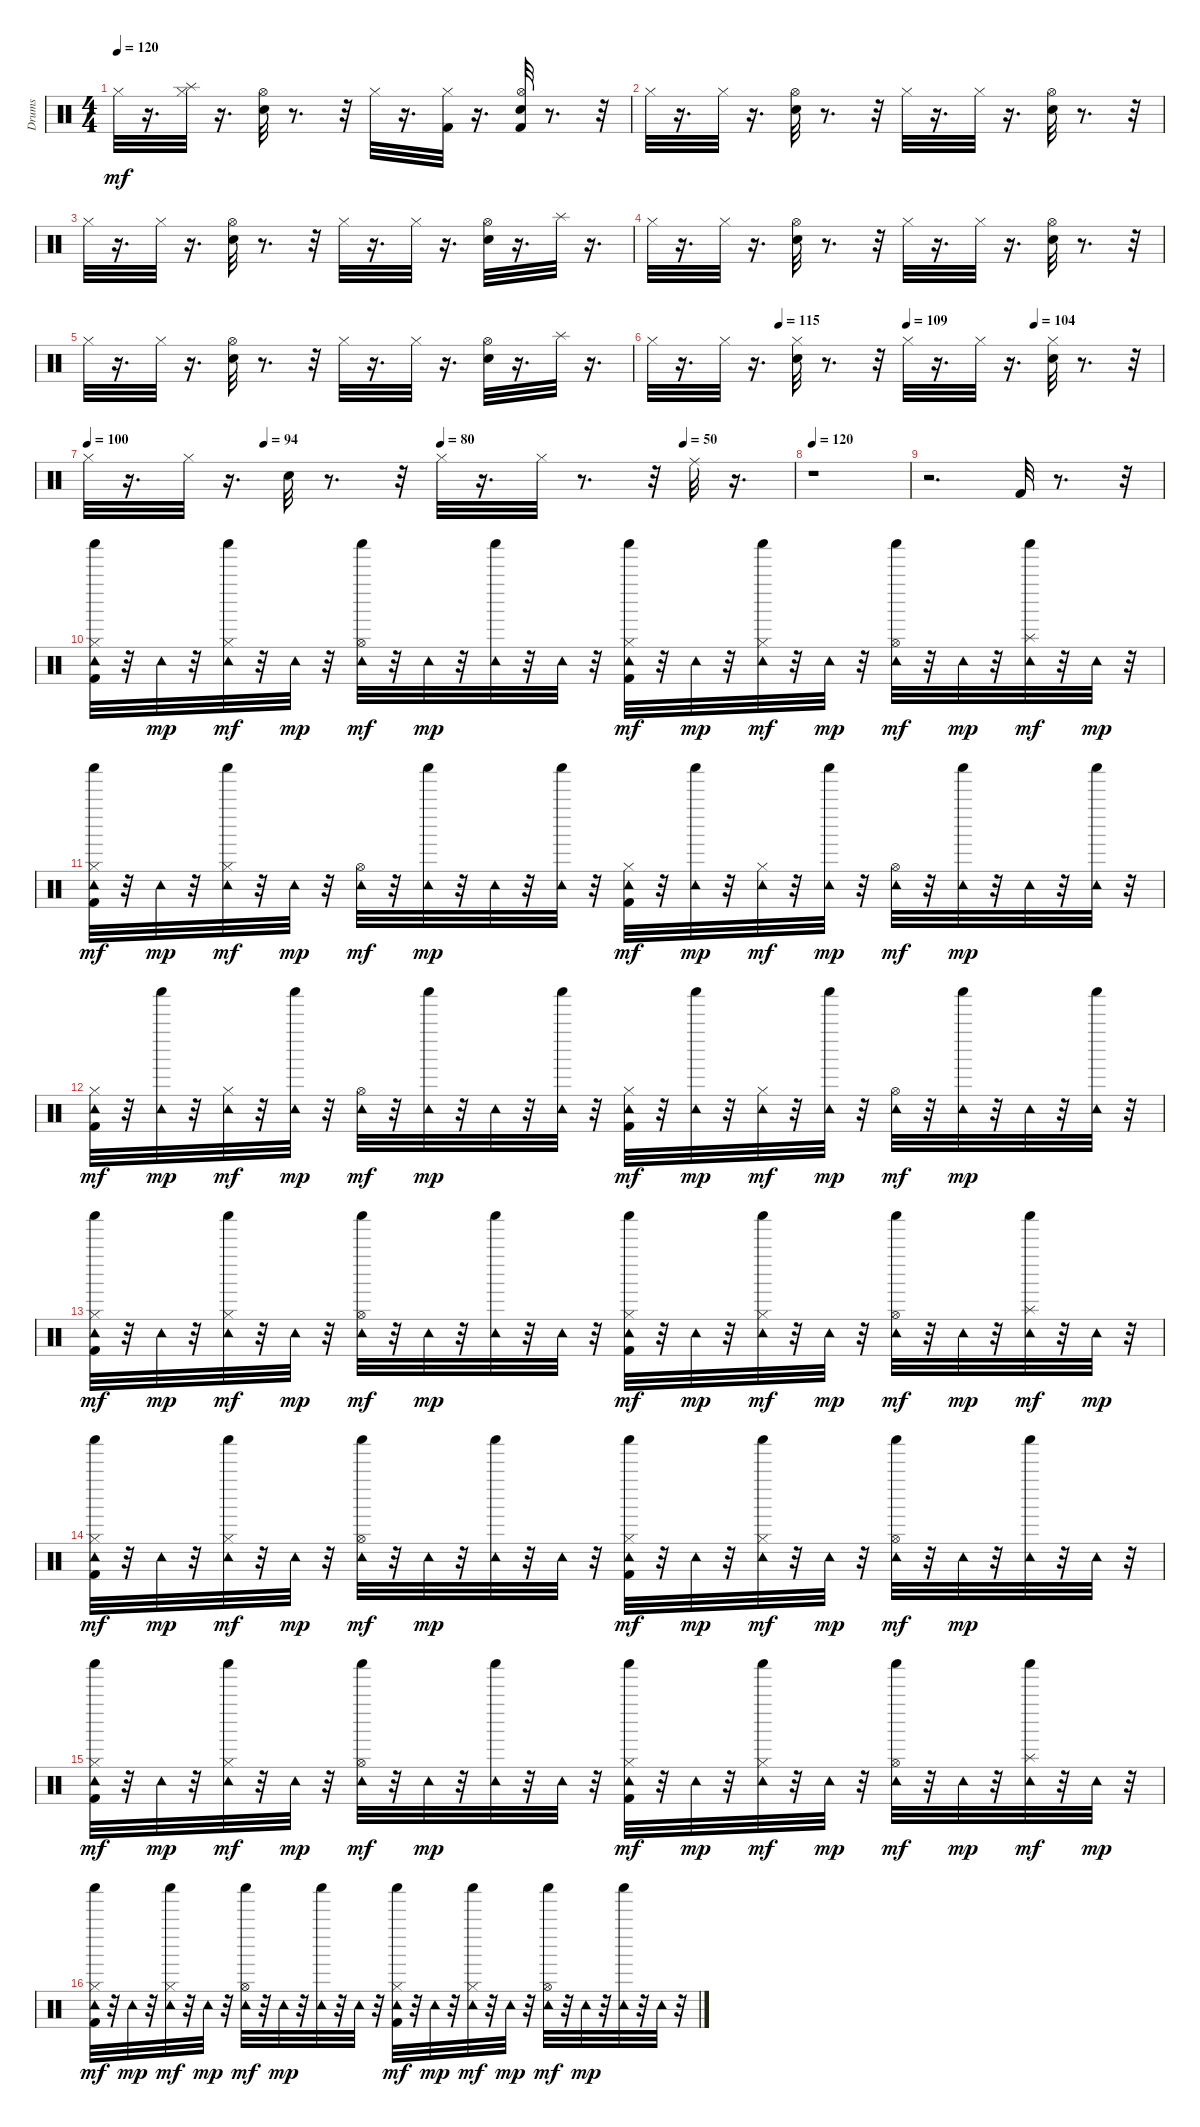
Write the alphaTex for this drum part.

\track ("Drums" "Drums") {instrument percussion}
\staff {score}
\articulation defaults
\ts (4 4)
\tempo 120
\clef neutral
\ks c "Hi-Hat (closed)".32{dy mf}
r.16{d} ("Splash (hit)" "Hi-Hat (closed)").32 r.16{d} ("Snare (hit) 2" "Hi-Hat (open)").32 r.8{d} r.32 "Hi-Hat (closed)".32 r.16{d} ("Kick (hit) 2" "Hi-Hat (closed)").32 r.16{d} ("Kick (hit) 2" "Snare (hit) 2" "Hi-Hat (open)").32 r.8{d} r.32 |
"Hi-Hat (closed)".32 r.16{d} "Hi-Hat (closed)".32 r.16{d} ("Snare (hit) 2" "Hi-Hat (open)").32 r.8{d} r.32 "Hi-Hat (closed)".32 r.16{d} "Hi-Hat (closed)".32 r.16{d} ("Snare (hit) 2" "Hi-Hat (open)").32 r.8{d} r.32 |
"Hi-Hat (closed)".32 r.16{d} "Hi-Hat (closed)".32 r.16{d} ("Snare (hit) 2" "Hi-Hat (open)").32 r.8{d} r.32 "Hi-Hat (closed)".32 r.16{d} "Hi-Hat (closed)".32 r.16{d} ("Snare (hit) 2" "Hi-Hat (open)").32 r.16{d} "Splash (hit)".32 r.16{d} |
"Hi-Hat (closed)".32 r.16{d} "Hi-Hat (closed)".32 r.16{d} ("Snare (hit) 2" "Hi-Hat (open)").32 r.8{d} r.32 "Hi-Hat (closed)".32 r.16{d} "Hi-Hat (closed)".32 r.16{d} ("Snare (hit) 2" "Hi-Hat (open)").32 r.8{d} r.32 |
"Hi-Hat (closed)".32 r.16{d} "Hi-Hat (closed)".32 r.16{d} ("Snare (hit) 2" "Hi-Hat (open)").32 r.8{d} r.32 "Hi-Hat (closed)".32 r.16{d} "Hi-Hat (closed)".32 r.16{d} ("Snare (hit) 2" "Hi-Hat (open)").32 r.16{d} "Splash (hit)".32 r.16{d} |
\tempo (115 0.25)
\tempo (109 0.5)
\tempo (104 0.75)
"Hi-Hat (closed)".32 r.16{d} "Hi-Hat (closed)".32 r.16{d} ("Snare (hit) 2" "Hi-Hat (closed)").32 r.8{d} r.32 "Hi-Hat (closed)".32 r.16{d} "Hi-Hat (closed)".32 r.16{d} ("Snare (hit) 2" "Hi-Hat (closed)").32 r.8{d} r.32 |
\tempo 100
\tempo (94 0.25)
\tempo (80 0.5)
\tempo (50 0.84375)
"Hi-Hat (closed)".32 r.16{d} "Hi-Hat (closed)".32 r.16{d} "Snare (hit) 2".32 r.8{d} r.32 "Hi-Hat (closed)".32 r.16{d} "Hi-Hat (closed)".32 r.8{d} r.32 "Ride (middle)".32 r.16{d} |
\tempo 120
r.1 |
r.2{d} "Kick (hit) 2".32 r.8{d} r.32 |
("Kick (hit) 2" "Tambourine (hit)" "Shaker (hit)" "Hi-Hat (closed)").32 r.32 "Tambourine (hit)".32{dy mp} r.32 ("Tambourine (hit)" "Shaker (hit)" "Hi-Hat (closed)").32{dy mf} r.32 "Tambourine (hit)".32{dy mp} r.32 ("Tambourine (hit)" "Shaker (hit)" "Hi-Hat (open)").32{dy mf} r.32 "Tambourine (hit)".32{dy mp} r.32 ("Tambourine (hit)" "Shaker (hit)").32 r.32 "Tambourine (hit)".32 r.32 ("Kick (hit) 2" "Tambourine (hit)" "Shaker (hit)" "Hi-Hat (closed)").32{dy mf} r.32 "Tambourine (hit)".32{dy mp} r.32 ("Tambourine (hit)" "Shaker (hit)" "Hi-Hat (closed)").32{dy mf} r.32 "Tambourine (hit)".32{dy mp} r.32 ("Tambourine (hit)" "Shaker (hit)" "Hi-Hat (open)").32{dy mf} r.32 "Tambourine (hit)".32{dy mp} r.32 ("Tambourine (hit)" "Shaker (hit)" "Splash (hit)").32{dy mf} r.32 "Tambourine (hit)".32{dy mp} r.32 |
("Kick (hit) 2" "Tambourine (hit)" "Shaker (hit)" "Hi-Hat (closed)").32{dy mf} r.32 "Tambourine (hit)".32{dy mp} r.32 ("Tambourine (hit)" "Shaker (hit)" "Hi-Hat (closed)").32{dy mf} r.32 "Tambourine (hit)".32{dy mp} r.32 ("Tambourine (hit)" "Hi-Hat (open)").32{dy mf} r.32 ("Tambourine (hit)" "Shaker (hit)").32{dy mp} r.32 "Tambourine (hit)".32 r.32 ("Tambourine (hit)" "Shaker (hit)").32 r.32 ("Kick (hit) 2" "Tambourine (hit)" "Hi-Hat (closed)").32{dy mf} r.32 ("Tambourine (hit)" "Shaker (hit)").32{dy mp} r.32 ("Tambourine (hit)" "Hi-Hat (closed)").32{dy mf} r.32 ("Tambourine (hit)" "Shaker (hit)").32{dy mp} r.32 ("Tambourine (hit)" "Hi-Hat (open)").32{dy mf} r.32 ("Tambourine (hit)" "Shaker (hit)").32{dy mp} r.32 "Tambourine (hit)".32 r.32 ("Tambourine (hit)" "Shaker (hit)").32 r.32 |
("Kick (hit) 2" "Tambourine (hit)" "Hi-Hat (closed)").32{dy mf} r.32 ("Tambourine (hit)" "Shaker (hit)").32{dy mp} r.32 ("Tambourine (hit)" "Hi-Hat (closed)").32{dy mf} r.32 ("Tambourine (hit)" "Shaker (hit)").32{dy mp} r.32 ("Tambourine (hit)" "Hi-Hat (open)").32{dy mf} r.32 ("Tambourine (hit)" "Shaker (hit)").32{dy mp} r.32 "Tambourine (hit)".32 r.32 ("Tambourine (hit)" "Shaker (hit)").32 r.32 ("Kick (hit) 2" "Tambourine (hit)" "Hi-Hat (closed)").32{dy mf} r.32 ("Tambourine (hit)" "Shaker (hit)").32{dy mp} r.32 ("Tambourine (hit)" "Hi-Hat (closed)").32{dy mf} r.32 ("Tambourine (hit)" "Shaker (hit)").32{dy mp} r.32 ("Tambourine (hit)" "Hi-Hat (open)").32{dy mf} r.32 ("Tambourine (hit)" "Shaker (hit)").32{dy mp} r.32 "Tambourine (hit)".32 r.32 ("Tambourine (hit)" "Shaker (hit)").32 r.32 |
("Kick (hit) 2" "Tambourine (hit)" "Shaker (hit)" "Hi-Hat (closed)").32{dy mf} r.32 "Tambourine (hit)".32{dy mp} r.32 ("Tambourine (hit)" "Shaker (hit)" "Hi-Hat (closed)").32{dy mf} r.32 "Tambourine (hit)".32{dy mp} r.32 ("Tambourine (hit)" "Shaker (hit)" "Hi-Hat (open)").32{dy mf} r.32 "Tambourine (hit)".32{dy mp} r.32 ("Tambourine (hit)" "Shaker (hit)").32 r.32 "Tambourine (hit)".32 r.32 ("Kick (hit) 2" "Tambourine (hit)" "Shaker (hit)" "Hi-Hat (closed)").32{dy mf} r.32 "Tambourine (hit)".32{dy mp} r.32 ("Tambourine (hit)" "Shaker (hit)" "Hi-Hat (closed)").32{dy mf} r.32 "Tambourine (hit)".32{dy mp} r.32 ("Tambourine (hit)" "Shaker (hit)" "Hi-Hat (open)").32{dy mf} r.32 "Tambourine (hit)".32{dy mp} r.32 ("Tambourine (hit)" "Shaker (hit)" "Splash (hit)").32{dy mf} r.32 "Tambourine (hit)".32{dy mp} r.32 |
("Kick (hit) 2" "Tambourine (hit)" "Shaker (hit)" "Hi-Hat (closed)").32{dy mf} r.32 "Tambourine (hit)".32{dy mp} r.32 ("Tambourine (hit)" "Shaker (hit)" "Hi-Hat (closed)").32{dy mf} r.32 "Tambourine (hit)".32{dy mp} r.32 ("Tambourine (hit)" "Shaker (hit)" "Hi-Hat (open)").32{dy mf} r.32 "Tambourine (hit)".32{dy mp} r.32 ("Tambourine (hit)" "Shaker (hit)").32 r.32 "Tambourine (hit)".32 r.32 ("Kick (hit) 2" "Tambourine (hit)" "Shaker (hit)" "Hi-Hat (closed)").32{dy mf} r.32 "Tambourine (hit)".32{dy mp} r.32 ("Tambourine (hit)" "Shaker (hit)" "Hi-Hat (closed)").32{dy mf} r.32 "Tambourine (hit)".32{dy mp} r.32 ("Tambourine (hit)" "Shaker (hit)" "Hi-Hat (open)").32{dy mf} r.32 "Tambourine (hit)".32{dy mp} r.32 ("Tambourine (hit)" "Shaker (hit)").32 r.32 "Tambourine (hit)".32 r.32 |
("Kick (hit) 2" "Tambourine (hit)" "Shaker (hit)" "Hi-Hat (closed)").32{dy mf} r.32 "Tambourine (hit)".32{dy mp} r.32 ("Tambourine (hit)" "Shaker (hit)" "Hi-Hat (closed)").32{dy mf} r.32 "Tambourine (hit)".32{dy mp} r.32 ("Tambourine (hit)" "Shaker (hit)" "Hi-Hat (open)").32{dy mf} r.32 "Tambourine (hit)".32{dy mp} r.32 ("Tambourine (hit)" "Shaker (hit)").32 r.32 "Tambourine (hit)".32 r.32 ("Kick (hit) 2" "Tambourine (hit)" "Shaker (hit)" "Hi-Hat (closed)").32{dy mf} r.32 "Tambourine (hit)".32{dy mp} r.32 ("Tambourine (hit)" "Shaker (hit)" "Hi-Hat (closed)").32{dy mf} r.32 "Tambourine (hit)".32{dy mp} r.32 ("Tambourine (hit)" "Shaker (hit)" "Hi-Hat (open)").32{dy mf} r.32 "Tambourine (hit)".32{dy mp} r.32 ("Tambourine (hit)" "Shaker (hit)" "Splash (hit)").32{dy mf} r.32 "Tambourine (hit)".32{dy mp} r.32 |
("Kick (hit) 2" "Tambourine (hit)" "Shaker (hit)" "Hi-Hat (closed)").32{dy mf} r.32 "Tambourine (hit)".32{dy mp} r.32 ("Tambourine (hit)" "Shaker (hit)" "Hi-Hat (closed)").32{dy mf} r.32 "Tambourine (hit)".32{dy mp} r.32 ("Tambourine (hit)" "Shaker (hit)" "Hi-Hat (open)").32{dy mf} r.32 "Tambourine (hit)".32{dy mp} r.32 ("Tambourine (hit)" "Shaker (hit)").32 r.32 "Tambourine (hit)".32 r.32 ("Kick (hit) 2" "Tambourine (hit)" "Shaker (hit)" "Hi-Hat (closed)").32{dy mf} r.32 "Tambourine (hit)".32{dy mp} r.32 ("Tambourine (hit)" "Shaker (hit)" "Hi-Hat (closed)").32{dy mf} r.32 "Tambourine (hit)".32{dy mp} r.32 ("Tambourine (hit)" "Shaker (hit)" "Hi-Hat (open)").32{dy mf} r.32 "Tambourine (hit)".32{dy mp} r.32 ("Tambourine (hit)" "Shaker (hit)").32 r.32 "Tambourine (hit)".32 r.32
